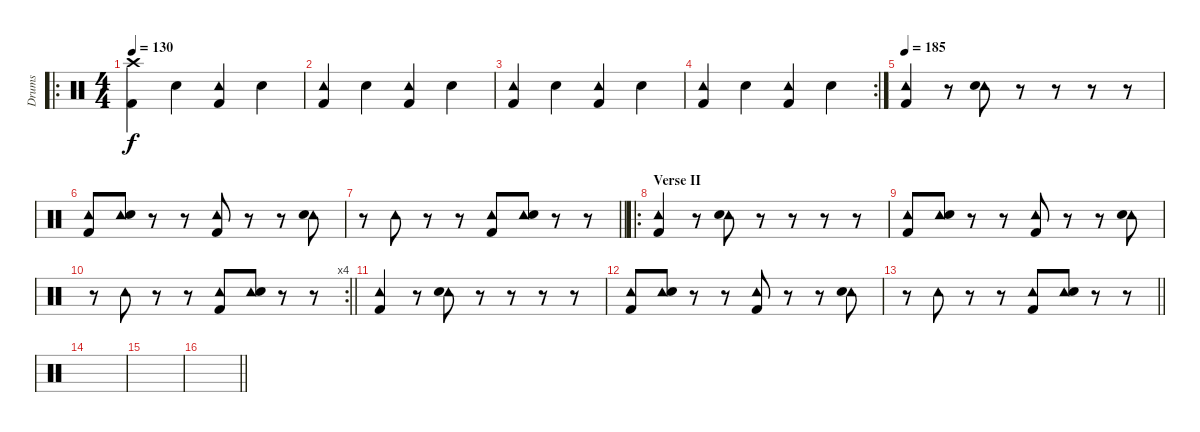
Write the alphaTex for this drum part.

\track ("Drums" "Drums") {instrument percussion}
\staff {score}
\articulation defaults
\ro
\ts (4 4)
\tempo 130
\clef neutral
\ks c
("Crash high (hit)" "Kick (hit) 2").4{dy f} "Snare (hit) 2".4 ("Tambourine (hit)" "Kick (hit) 2").4 "Snare (hit) 2".4 |
("Tambourine (hit)" "Kick (hit) 2").4 "Snare (hit) 2".4 ("Tambourine (hit)" "Kick (hit) 2").4 "Snare (hit) 2".4 |
("Tambourine (hit)" "Kick (hit) 2").4 "Snare (hit) 2".4 ("Tambourine (hit)" "Kick (hit) 2").4 "Snare (hit) 2".4 |
\rc 2
("Tambourine (hit)" "Kick (hit) 2").4 "Snare (hit) 2".4 ("Tambourine (hit)" "Kick (hit) 2").4 "Snare (hit) 2".4 |
\tempo 185
("Tambourine (hit)" "Kick (hit) 2").4 r.8 ("Tambourine (hit)" "Snare (hit) 2").8 r.8 r.8 r.8 r.8 |
("Tambourine (hit)" "Kick (hit) 2").8 ("Tambourine (hit)" "Snare (hit) 2").8 r.8 r.8 ("Tambourine (hit)" "Kick (hit) 2").8 r.8 r.8 ("Tambourine (hit)" "Snare (hit) 2").8 |
\barLineRight lightlight
r.8 "Tambourine (hit)".8 r.8 r.8 ("Tambourine (hit)" "Kick (hit) 2").8 ("Tambourine (hit)" "Snare (hit) 2").8 r.8 r.8 |
\ro
\section ("" "Verse II")
("Tambourine (hit)" "Kick (hit) 2").4 r.8 ("Tambourine (hit)" "Snare (hit) 2").8 r.8 r.8 r.8 r.8 |
("Tambourine (hit)" "Kick (hit) 2").8 ("Tambourine (hit)" "Snare (hit) 2").8 r.8 r.8 ("Tambourine (hit)" "Kick (hit) 2").8 r.8 r.8 ("Tambourine (hit)" "Snare (hit) 2").8 |
\rc 4
\barLineRight lightlight
r.8 "Tambourine (hit)".8 r.8 r.8 ("Tambourine (hit)" "Kick (hit) 2").8 ("Tambourine (hit)" "Snare (hit) 2").8 r.8 r.8 |
("Tambourine (hit)" "Kick (hit) 2").4 r.8 ("Tambourine (hit)" "Snare (hit) 2").8 r.8 r.8 r.8 r.8 |
("Tambourine (hit)" "Kick (hit) 2").8 ("Tambourine (hit)" "Snare (hit) 2").8 r.8 r.8 ("Tambourine (hit)" "Kick (hit) 2").8 r.8 r.8 ("Tambourine (hit)" "Snare (hit) 2").8 |
\barLineRight lightlight
r.8 "Tambourine (hit)".8 r.8 r.8 ("Tambourine (hit)" "Kick (hit) 2").8 ("Tambourine (hit)" "Snare (hit) 2").8 r.8 r.8 |
|
|
\barLineRight lightlight
